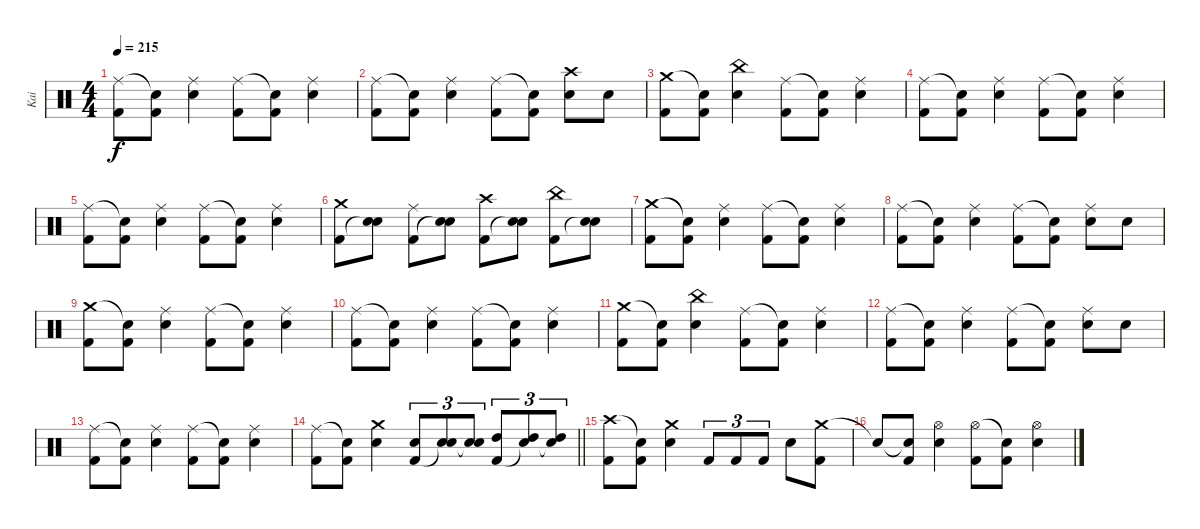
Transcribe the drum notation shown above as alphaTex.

\track ("Kai" "Kai") {instrument percussion}
\staff {score}
\articulation defaults
\ts (4 4)
\tempo 215
\clef neutral
\ks c
("Ride (middle)" "Kick (hit) 2").8{dy f} ("Snare (hit)"{t} "Kick (hit) 2").8 ("Ride (middle)" "Snare (hit) 2").4 ("Ride (middle)" "Kick (hit) 2").8 ("Snare (hit)"{t} "Kick (hit) 2").8 ("Ride (middle)" "Snare (hit) 2").4 |
("Ride (middle)" "Kick (hit) 2").8 ("Snare (hit)"{t} "Kick (hit) 2").8 ("Ride (middle)" "Snare (hit) 2").4 ("Ride (middle)" "Kick (hit) 2").8 ("Snare (hit)"{t} "Kick (hit) 2").8 ("Crash high (hit)" "Snare (hit) 2").8 "Snare (hit) 2".8 |
("Crash medium (hit)" "Kick (hit) 2").8 ("Snare (hit)"{t} "Kick (hit) 2").8 ("China (hit)" "Snare (hit) 2").4 ("Ride (middle)" "Kick (hit) 2").8 ("Snare (hit)"{t} "Kick (hit) 2").8 ("Ride (middle)" "Snare (hit) 2").4 |
("Ride (middle)" "Kick (hit) 2").8 ("Snare (hit)"{t} "Kick (hit) 2").8 ("Ride (middle)" "Snare (hit) 2").4 ("Ride (middle)" "Kick (hit) 2").8 ("Snare (hit)"{t} "Kick (hit) 2").8 ("Ride (middle)" "Snare (hit) 2").4 |
("Ride (middle)" "Kick (hit) 2").8 ("Snare (hit)"{t} "Kick (hit) 2").8 ("Ride (middle)" "Snare (hit) 2").4 ("Ride (middle)" "Kick (hit) 2").8 ("Snare (hit)"{t} "Kick (hit) 2").8 ("Ride (middle)" "Snare (hit) 2").4 |
("Crash medium (hit)" "Kick (hit) 2").8 ("Snare (hit) 2" "Snare (hit)"{t}).8 ("Ride (middle)" "Kick (hit) 2").8 ("Snare (hit) 2" "Snare (hit)"{t}).8 ("Crash high (hit)" "Kick (hit) 2").8 ("Snare (hit) 2" "Snare (hit)"{t}).8 ("China (hit)" "Kick (hit) 2").8 ("Snare (hit) 2" "Snare (hit)"{t}).8 |
("Crash medium (hit)" "Kick (hit) 2").8 ("Snare (hit)"{t} "Kick (hit) 2").8 ("Ride (middle)" "Snare (hit) 2").4 ("Ride (middle)" "Kick (hit) 2").8 ("Snare (hit)"{t} "Kick (hit) 2").8 ("Ride (middle)" "Snare (hit) 2").4 |
("Ride (middle)" "Kick (hit) 2").8 ("Snare (hit)"{t} "Kick (hit) 2").8 ("Ride (middle)" "Snare (hit) 2").4 ("Ride (middle)" "Kick (hit) 2").8 ("Snare (hit)"{t} "Kick (hit) 2").8 ("Ride (middle)" "Snare (hit) 2").8 "Snare (hit) 2".8 |
("Crash medium (hit)" "Kick (hit) 2").8 ("Snare (hit)"{t} "Kick (hit) 2").8 ("Ride (middle)" "Snare (hit) 2").4 ("Ride (middle)" "Kick (hit) 2").8 ("Snare (hit)"{t} "Kick (hit) 2").8 ("Ride (middle)" "Snare (hit) 2").4 |
("Ride (middle)" "Kick (hit) 2").8 ("Snare (hit)"{t} "Kick (hit) 2").8 ("Ride (middle)" "Snare (hit) 2").4 ("Ride (middle)" "Kick (hit) 2").8 ("Snare (hit)"{t} "Kick (hit) 2").8 ("Ride (middle)" "Snare (hit) 2").4 |
("Crash medium (hit)" "Kick (hit) 2").8 ("Snare (hit)"{t} "Kick (hit) 2").8 ("China (hit)" "Snare (hit) 2").4 ("Ride (middle)" "Kick (hit) 2").8 ("Snare (hit)"{t} "Kick (hit) 2").8 ("Ride (middle)" "Snare (hit) 2").4 |
("Ride (middle)" "Kick (hit) 2").8 ("Snare (hit)"{t} "Kick (hit) 2").8 ("Ride (middle)" "Snare (hit) 2").4 ("Ride (middle)" "Kick (hit) 2").8 ("Snare (hit)"{t} "Kick (hit) 2").8 ("Ride (middle)" "Snare (hit) 2").8 "Snare (hit) 2".8 |
("Ride (middle)" "Kick (hit) 2").8 ("Snare (hit)"{t} "Kick (hit) 2").8 ("Ride (middle)" "Snare (hit) 2").4 ("Ride (middle)" "Kick (hit) 2").8 ("Snare (hit)"{t} "Kick (hit) 2").8 ("Ride (middle)" "Snare (hit) 2").4 |
\barLineRight lightlight
("Ride (middle)" "Kick (hit) 2").8 ("Snare (hit)"{t} "Kick (hit) 2").8 ("Crash medium (hit)" "Snare (hit) 2").4 ("Snare (hit) 2" "Kick (hit) 2").8{tu (3 2)} ("Snare (hit) 2" "Snare (hit)"{t}).8{tu (3 2)} ("Snare (hit) 2" "Snare (hit)"{t}).8{tu (3 2)} ("High Tom (hit)" "Kick (hit) 2").8{tu (3 2)} ("High Tom (hit)" "Snare (hit)"{t}).8{tu (3 2)} ("High Tom (hit)" "Snare (hit)"{t}).8{tu (3 2)} |
("Crash high (hit)" "Kick (hit) 2").8 ("Snare (hit)"{t} "Kick (hit) 2").8 ("Crash medium (hit)" "Snare (hit) 2").4 "Kick (hit) 2".8{tu (3 2)} "Kick (hit) 2".8{tu (3 2)} "Kick (hit) 2".8{tu (3 2)} "Snare (hit) 2".8 ("Crash medium (hit)" "Kick (hit) 2").8 |
"Snare (hit)"{t}.8 ("Snare (hit)"{t} "Kick (hit) 2").8 ("Hi-Hat (open)" "Snare (hit) 2").4 ("Hi-Hat (open)" "Kick (hit) 2").8 ("Snare (hit)"{t} "Kick (hit) 2").8 ("Hi-Hat (open)" "Snare (hit) 2").4
